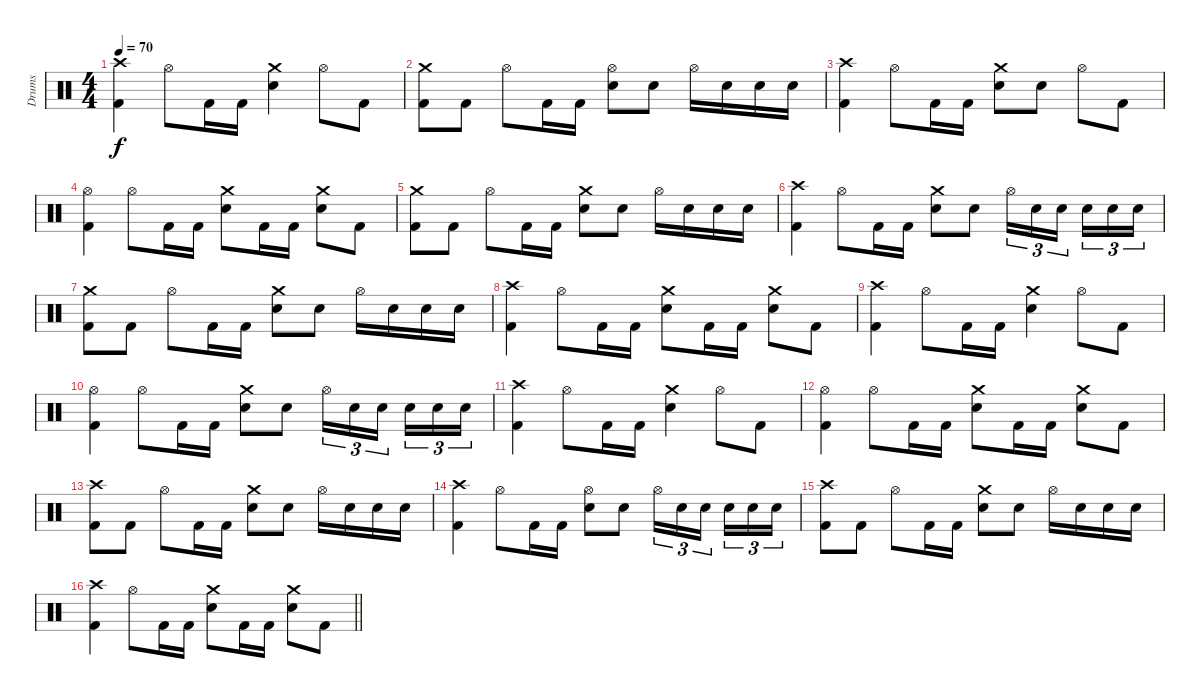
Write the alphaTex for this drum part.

\track ("Drums" "Drums") {instrument percussion}
\staff {score}
\articulation defaults
\ts (4 4)
\tempo 70
\clef neutral
\ks c
("Crash high (hit)" "Kick (hit) 2").4{dy f} "Hi-Hat (open)".8 "Kick (hit) 2".16 "Kick (hit) 2".16 ("Crash medium (hit)" "Electric Snare (hit)").4 "Hi-Hat (open)".8 "Kick (hit) 2".8 |
("Crash medium (hit)" "Kick (hit) 2").8 "Kick (hit) 2".8 "Hi-Hat (open)".8 "Kick (hit) 2".16 "Kick (hit) 2".16 ("Hi-Hat (open)" "Electric Snare (hit)").8 "Electric Snare (hit)".8 "Hi-Hat (open)".16 "Electric Snare (hit)".16 "Electric Snare (hit)".16 "Electric Snare (hit)".16 |
("Crash high (hit)" "Kick (hit) 2").4 "Hi-Hat (open)".8 "Kick (hit) 2".16 "Kick (hit) 2".16 ("Crash medium (hit)" "Electric Snare (hit)").8 "Electric Snare (hit)".8 "Hi-Hat (open)".8 "Kick (hit) 2".8 |
("Hi-Hat (open)" "Kick (hit) 2").4 "Hi-Hat (open)".8 "Kick (hit) 2".16 "Kick (hit) 2".16 ("Crash medium (hit)" "Electric Snare (hit)").8 "Kick (hit) 2".16 "Kick (hit) 2".16 ("Crash medium (hit)" "Electric Snare (hit)").8 "Kick (hit) 2".8 |
("Crash medium (hit)" "Kick (hit) 2").8 "Kick (hit) 2".8 "Hi-Hat (open)".8 "Kick (hit) 2".16 "Kick (hit) 2".16 ("Crash medium (hit)" "Electric Snare (hit)").8 "Electric Snare (hit)".8 "Hi-Hat (open)".16 "Electric Snare (hit)".16 "Electric Snare (hit)".16 "Electric Snare (hit)".16 |
("Crash high (hit)" "Kick (hit) 2").4 "Hi-Hat (open)".8 "Kick (hit) 2".16 "Kick (hit) 2".16 ("Crash medium (hit)" "Electric Snare (hit)").8 "Electric Snare (hit)".8 "Hi-Hat (open)".16{tu (3 2)} "Electric Snare (hit)".16{tu (3 2)} "Electric Snare (hit)".16{tu (3 2) beam splitsecondary} "Electric Snare (hit)".16{tu (3 2)} "Electric Snare (hit)".16{tu (3 2)} "Electric Snare (hit)".16{tu (3 2)} |
("Crash medium (hit)" "Kick (hit) 2").8 "Kick (hit) 2".8 "Hi-Hat (open)".8 "Kick (hit) 2".16 "Kick (hit) 2".16 ("Crash medium (hit)" "Electric Snare (hit)").8 "Electric Snare (hit)".8 "Hi-Hat (open)".16 "Electric Snare (hit)".16 "Electric Snare (hit)".16 "Electric Snare (hit)".16 |
("Crash high (hit)" "Kick (hit) 2").4 "Hi-Hat (open)".8 "Kick (hit) 2".16 "Kick (hit) 2".16 ("Crash medium (hit)" "Electric Snare (hit)").8 "Kick (hit) 2".16 "Kick (hit) 2".16 ("Crash medium (hit)" "Electric Snare (hit)").8 "Kick (hit) 2".8 |
("Crash high (hit)" "Kick (hit) 2").4 "Hi-Hat (open)".8 "Kick (hit) 2".16 "Kick (hit) 2".16 ("Crash medium (hit)" "Electric Snare (hit)").4 "Hi-Hat (open)".8 "Kick (hit) 2".8 |
("Hi-Hat (open)" "Kick (hit) 2").4 "Hi-Hat (open)".8 "Kick (hit) 2".16 "Kick (hit) 2".16 ("Crash medium (hit)" "Electric Snare (hit)").8 "Electric Snare (hit)".8 "Hi-Hat (open)".16{tu (3 2)} "Electric Snare (hit)".16{tu (3 2)} "Electric Snare (hit)".16{tu (3 2) beam splitsecondary} "Electric Snare (hit)".16{tu (3 2)} "Electric Snare (hit)".16{tu (3 2)} "Electric Snare (hit)".16{tu (3 2)} |
("Crash high (hit)" "Kick (hit) 2").4 "Hi-Hat (open)".8 "Kick (hit) 2".16 "Kick (hit) 2".16 ("Crash medium (hit)" "Electric Snare (hit)").4 "Hi-Hat (open)".8 "Kick (hit) 2".8 |
("Hi-Hat (open)" "Kick (hit) 2").4 "Hi-Hat (open)".8 "Kick (hit) 2".16 "Kick (hit) 2".16 ("Crash medium (hit)" "Electric Snare (hit)").8 "Kick (hit) 2".16 "Kick (hit) 2".16 ("Crash medium (hit)" "Electric Snare (hit)").8 "Kick (hit) 2".8 |
("Crash high (hit)" "Kick (hit) 2").8 "Kick (hit) 2".8 "Hi-Hat (open)".8 "Kick (hit) 2".16 "Kick (hit) 2".16 ("Crash medium (hit)" "Electric Snare (hit)").8 "Electric Snare (hit)".8 "Hi-Hat (open)".16 "Electric Snare (hit)".16 "Electric Snare (hit)".16 "Electric Snare (hit)".16 |
("Crash high (hit)" "Kick (hit) 2").4 "Hi-Hat (open)".8 "Kick (hit) 2".16 "Kick (hit) 2".16 ("Hi-Hat (open)" "Electric Snare (hit)").8 "Electric Snare (hit)".8 "Hi-Hat (open)".16{tu (3 2)} "Electric Snare (hit)".16{tu (3 2)} "Electric Snare (hit)".16{tu (3 2) beam splitsecondary} "Electric Snare (hit)".16{tu (3 2)} "Electric Snare (hit)".16{tu (3 2)} "Electric Snare (hit)".16{tu (3 2)} |
("Crash high (hit)" "Kick (hit) 2").8 "Kick (hit) 2".8 "Hi-Hat (open)".8 "Kick (hit) 2".16 "Kick (hit) 2".16 ("Crash medium (hit)" "Electric Snare (hit)").8 "Electric Snare (hit)".8 "Hi-Hat (open)".16 "Electric Snare (hit)".16 "Electric Snare (hit)".16 "Electric Snare (hit)".16 |
\barLineRight lightlight
("Crash high (hit)" "Kick (hit) 2").4 "Hi-Hat (open)".8 "Kick (hit) 2".16 "Kick (hit) 2".16 ("Crash medium (hit)" "Electric Snare (hit)").8 "Kick (hit) 2".16 "Kick (hit) 2".16 ("Crash medium (hit)" "Electric Snare (hit)").8 "Kick (hit) 2".8
